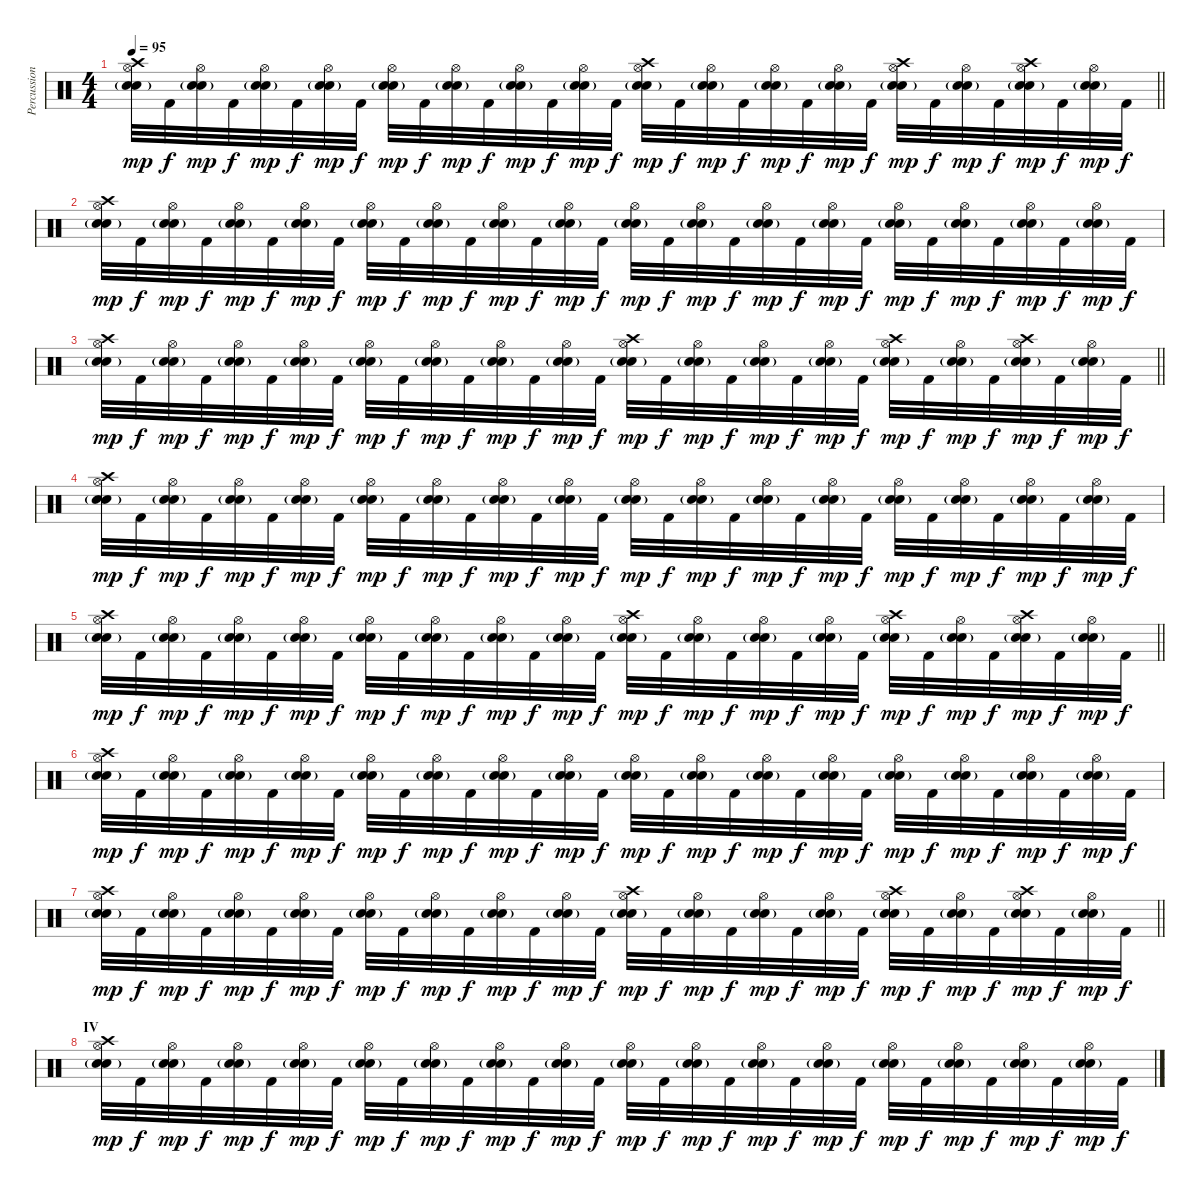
\track ("Percussion" "Percussion") {instrument percussion}
\staff {score}
\articulation defaults
\ts (4 4)
\tempo 95
\clef neutral
\barLineRight lightlight
\ks c
("Crash high (hit)" "Electric Snare (hit)" "Snare (hit) 2"{g} "Hi-Hat (open)").32{dy mp} "Kick (hit) 2".32{dy f} ("Electric Snare (hit)" "Snare (hit) 2"{g} "Hi-Hat (open)").32{dy mp} "Kick (hit) 2".32{dy f} ("Electric Snare (hit)" "Snare (hit) 2"{g} "Hi-Hat (open)").32{dy mp} "Kick (hit) 2".32{dy f} ("Electric Snare (hit)" "Snare (hit) 2"{g} "Hi-Hat (open)").32{dy mp} "Kick (hit) 2".32{dy f} ("Electric Snare (hit)" "Snare (hit) 2"{g} "Hi-Hat (open)").32{dy mp} "Kick (hit) 2".32{dy f} ("Electric Snare (hit)" "Snare (hit) 2"{g} "Hi-Hat (open)").32{dy mp} "Kick (hit) 2".32{dy f} ("Electric Snare (hit)" "Snare (hit) 2"{g} "Hi-Hat (open)").32{dy mp} "Kick (hit) 2".32{dy f} ("Electric Snare (hit)" "Snare (hit) 2"{g} "Hi-Hat (open)").32{dy mp} "Kick (hit) 2".32{dy f} ("Crash high (hit)" "Electric Snare (hit)" "Snare (hit) 2"{g} "Hi-Hat (open)").32{dy mp} "Kick (hit) 2".32{dy f} ("Electric Snare (hit)" "Snare (hit) 2"{g} "Hi-Hat (open)").32{dy mp} "Kick (hit) 2".32{dy f} ("Electric Snare (hit)" "Snare (hit) 2"{g} "Hi-Hat (open)").32{dy mp} "Kick (hit) 2".32{dy f} ("Electric Snare (hit)" "Snare (hit) 2"{g} "Hi-Hat (open)").32{dy mp} "Kick (hit) 2".32{dy f} ("Crash high (hit)" "Electric Snare (hit)" "Snare (hit) 2"{g} "Hi-Hat (open)").32{dy mp} "Kick (hit) 2".32{dy f} ("Electric Snare (hit)" "Snare (hit) 2"{g} "Hi-Hat (open)").32{dy mp} "Kick (hit) 2".32{dy f} ("Crash high (hit)" "Electric Snare (hit)" "Snare (hit) 2"{g} "Hi-Hat (open)").32{dy mp} "Kick (hit) 2".32{dy f} ("Electric Snare (hit)" "Snare (hit) 2"{g} "Hi-Hat (open)").32{dy mp} "Kick (hit) 2".32{dy f} |
("Crash high (hit)" "Electric Snare (hit)" "Snare (hit) 2"{g} "Hi-Hat (open)").32{dy mp} "Kick (hit) 2".32{dy f} ("Electric Snare (hit)" "Snare (hit) 2"{g} "Hi-Hat (open)").32{dy mp} "Kick (hit) 2".32{dy f} ("Electric Snare (hit)" "Snare (hit) 2"{g} "Hi-Hat (open)").32{dy mp} "Kick (hit) 2".32{dy f} ("Electric Snare (hit)" "Snare (hit) 2"{g} "Hi-Hat (open)").32{dy mp} "Kick (hit) 2".32{dy f} ("Electric Snare (hit)" "Snare (hit) 2"{g} "Hi-Hat (open)").32{dy mp} "Kick (hit) 2".32{dy f} ("Electric Snare (hit)" "Snare (hit) 2"{g} "Hi-Hat (open)").32{dy mp} "Kick (hit) 2".32{dy f} ("Electric Snare (hit)" "Snare (hit) 2"{g} "Hi-Hat (open)").32{dy mp} "Kick (hit) 2".32{dy f} ("Electric Snare (hit)" "Snare (hit) 2"{g} "Hi-Hat (open)").32{dy mp} "Kick (hit) 2".32{dy f} ("Electric Snare (hit)" "Snare (hit) 2"{g} "Hi-Hat (open)").32{dy mp} "Kick (hit) 2".32{dy f} ("Electric Snare (hit)" "Snare (hit) 2"{g} "Hi-Hat (open)").32{dy mp} "Kick (hit) 2".32{dy f} ("Electric Snare (hit)" "Snare (hit) 2"{g} "Hi-Hat (open)").32{dy mp} "Kick (hit) 2".32{dy f} ("Electric Snare (hit)" "Snare (hit) 2"{g} "Hi-Hat (open)").32{dy mp} "Kick (hit) 2".32{dy f} ("Electric Snare (hit)" "Snare (hit) 2"{g} "Hi-Hat (open)").32{dy mp} "Kick (hit) 2".32{dy f} ("Electric Snare (hit)" "Snare (hit) 2"{g} "Hi-Hat (open)").32{dy mp} "Kick (hit) 2".32{dy f} ("Electric Snare (hit)" "Snare (hit) 2"{g} "Hi-Hat (open)").32{dy mp} "Kick (hit) 2".32{dy f} ("Electric Snare (hit)" "Snare (hit) 2"{g} "Hi-Hat (open)").32{dy mp} "Kick (hit) 2".32{dy f} |
\barLineRight lightlight
("Crash high (hit)" "Electric Snare (hit)" "Snare (hit) 2"{g} "Hi-Hat (open)").32{dy mp} "Kick (hit) 2".32{dy f} ("Electric Snare (hit)" "Snare (hit) 2"{g} "Hi-Hat (open)").32{dy mp} "Kick (hit) 2".32{dy f} ("Electric Snare (hit)" "Snare (hit) 2"{g} "Hi-Hat (open)").32{dy mp} "Kick (hit) 2".32{dy f} ("Electric Snare (hit)" "Snare (hit) 2"{g} "Hi-Hat (open)").32{dy mp} "Kick (hit) 2".32{dy f} ("Electric Snare (hit)" "Snare (hit) 2"{g} "Hi-Hat (open)").32{dy mp} "Kick (hit) 2".32{dy f} ("Electric Snare (hit)" "Snare (hit) 2"{g} "Hi-Hat (open)").32{dy mp} "Kick (hit) 2".32{dy f} ("Electric Snare (hit)" "Snare (hit) 2"{g} "Hi-Hat (open)").32{dy mp} "Kick (hit) 2".32{dy f} ("Electric Snare (hit)" "Snare (hit) 2"{g} "Hi-Hat (open)").32{dy mp} "Kick (hit) 2".32{dy f} ("Crash high (hit)" "Electric Snare (hit)" "Snare (hit) 2"{g} "Hi-Hat (open)").32{dy mp} "Kick (hit) 2".32{dy f} ("Electric Snare (hit)" "Snare (hit) 2"{g} "Hi-Hat (open)").32{dy mp} "Kick (hit) 2".32{dy f} ("Electric Snare (hit)" "Snare (hit) 2"{g} "Hi-Hat (open)").32{dy mp} "Kick (hit) 2".32{dy f} ("Electric Snare (hit)" "Snare (hit) 2"{g} "Hi-Hat (open)").32{dy mp} "Kick (hit) 2".32{dy f} ("Crash high (hit)" "Electric Snare (hit)" "Snare (hit) 2"{g} "Hi-Hat (open)").32{dy mp} "Kick (hit) 2".32{dy f} ("Electric Snare (hit)" "Snare (hit) 2"{g} "Hi-Hat (open)").32{dy mp} "Kick (hit) 2".32{dy f} ("Crash high (hit)" "Electric Snare (hit)" "Snare (hit) 2"{g} "Hi-Hat (open)").32{dy mp} "Kick (hit) 2".32{dy f} ("Electric Snare (hit)" "Snare (hit) 2"{g} "Hi-Hat (open)").32{dy mp} "Kick (hit) 2".32{dy f} |
("Crash high (hit)" "Electric Snare (hit)" "Snare (hit) 2"{g} "Hi-Hat (open)").32{dy mp} "Kick (hit) 2".32{dy f} ("Electric Snare (hit)" "Snare (hit) 2"{g} "Hi-Hat (open)").32{dy mp} "Kick (hit) 2".32{dy f} ("Electric Snare (hit)" "Snare (hit) 2"{g} "Hi-Hat (open)").32{dy mp} "Kick (hit) 2".32{dy f} ("Electric Snare (hit)" "Snare (hit) 2"{g} "Hi-Hat (open)").32{dy mp} "Kick (hit) 2".32{dy f} ("Electric Snare (hit)" "Snare (hit) 2"{g} "Hi-Hat (open)").32{dy mp} "Kick (hit) 2".32{dy f} ("Electric Snare (hit)" "Snare (hit) 2"{g} "Hi-Hat (open)").32{dy mp} "Kick (hit) 2".32{dy f} ("Electric Snare (hit)" "Snare (hit) 2"{g} "Hi-Hat (open)").32{dy mp} "Kick (hit) 2".32{dy f} ("Electric Snare (hit)" "Snare (hit) 2"{g} "Hi-Hat (open)").32{dy mp} "Kick (hit) 2".32{dy f} ("Electric Snare (hit)" "Snare (hit) 2"{g} "Hi-Hat (open)").32{dy mp} "Kick (hit) 2".32{dy f} ("Electric Snare (hit)" "Snare (hit) 2"{g} "Hi-Hat (open)").32{dy mp} "Kick (hit) 2".32{dy f} ("Electric Snare (hit)" "Snare (hit) 2"{g} "Hi-Hat (open)").32{dy mp} "Kick (hit) 2".32{dy f} ("Electric Snare (hit)" "Snare (hit) 2"{g} "Hi-Hat (open)").32{dy mp} "Kick (hit) 2".32{dy f} ("Electric Snare (hit)" "Snare (hit) 2"{g} "Hi-Hat (open)").32{dy mp} "Kick (hit) 2".32{dy f} ("Electric Snare (hit)" "Snare (hit) 2"{g} "Hi-Hat (open)").32{dy mp} "Kick (hit) 2".32{dy f} ("Electric Snare (hit)" "Snare (hit) 2"{g} "Hi-Hat (open)").32{dy mp} "Kick (hit) 2".32{dy f} ("Electric Snare (hit)" "Snare (hit) 2"{g} "Hi-Hat (open)").32{dy mp} "Kick (hit) 2".32{dy f} |
\barLineRight lightlight
("Crash high (hit)" "Electric Snare (hit)" "Snare (hit) 2"{g} "Hi-Hat (open)").32{dy mp} "Kick (hit) 2".32{dy f} ("Electric Snare (hit)" "Snare (hit) 2"{g} "Hi-Hat (open)").32{dy mp} "Kick (hit) 2".32{dy f} ("Electric Snare (hit)" "Snare (hit) 2"{g} "Hi-Hat (open)").32{dy mp} "Kick (hit) 2".32{dy f} ("Electric Snare (hit)" "Snare (hit) 2"{g} "Hi-Hat (open)").32{dy mp} "Kick (hit) 2".32{dy f} ("Electric Snare (hit)" "Snare (hit) 2"{g} "Hi-Hat (open)").32{dy mp} "Kick (hit) 2".32{dy f} ("Electric Snare (hit)" "Snare (hit) 2"{g} "Hi-Hat (open)").32{dy mp} "Kick (hit) 2".32{dy f} ("Electric Snare (hit)" "Snare (hit) 2"{g} "Hi-Hat (open)").32{dy mp} "Kick (hit) 2".32{dy f} ("Electric Snare (hit)" "Snare (hit) 2"{g} "Hi-Hat (open)").32{dy mp} "Kick (hit) 2".32{dy f} ("Crash high (hit)" "Electric Snare (hit)" "Snare (hit) 2"{g} "Hi-Hat (open)").32{dy mp} "Kick (hit) 2".32{dy f} ("Electric Snare (hit)" "Snare (hit) 2"{g} "Hi-Hat (open)").32{dy mp} "Kick (hit) 2".32{dy f} ("Electric Snare (hit)" "Snare (hit) 2"{g} "Hi-Hat (open)").32{dy mp} "Kick (hit) 2".32{dy f} ("Electric Snare (hit)" "Snare (hit) 2"{g} "Hi-Hat (open)").32{dy mp} "Kick (hit) 2".32{dy f} ("Crash high (hit)" "Electric Snare (hit)" "Snare (hit) 2"{g} "Hi-Hat (open)").32{dy mp} "Kick (hit) 2".32{dy f} ("Electric Snare (hit)" "Snare (hit) 2"{g} "Hi-Hat (open)").32{dy mp} "Kick (hit) 2".32{dy f} ("Crash high (hit)" "Electric Snare (hit)" "Snare (hit) 2"{g} "Hi-Hat (open)").32{dy mp} "Kick (hit) 2".32{dy f} ("Electric Snare (hit)" "Snare (hit) 2"{g} "Hi-Hat (open)").32{dy mp} "Kick (hit) 2".32{dy f} |
("Crash high (hit)" "Electric Snare (hit)" "Snare (hit) 2"{g} "Hi-Hat (open)").32{dy mp} "Kick (hit) 2".32{dy f} ("Electric Snare (hit)" "Snare (hit) 2"{g} "Hi-Hat (open)").32{dy mp} "Kick (hit) 2".32{dy f} ("Electric Snare (hit)" "Snare (hit) 2"{g} "Hi-Hat (open)").32{dy mp} "Kick (hit) 2".32{dy f} ("Electric Snare (hit)" "Snare (hit) 2"{g} "Hi-Hat (open)").32{dy mp} "Kick (hit) 2".32{dy f} ("Electric Snare (hit)" "Snare (hit) 2"{g} "Hi-Hat (open)").32{dy mp} "Kick (hit) 2".32{dy f} ("Electric Snare (hit)" "Snare (hit) 2"{g} "Hi-Hat (open)").32{dy mp} "Kick (hit) 2".32{dy f} ("Electric Snare (hit)" "Snare (hit) 2"{g} "Hi-Hat (open)").32{dy mp} "Kick (hit) 2".32{dy f} ("Electric Snare (hit)" "Snare (hit) 2"{g} "Hi-Hat (open)").32{dy mp} "Kick (hit) 2".32{dy f} ("Electric Snare (hit)" "Snare (hit) 2"{g} "Hi-Hat (open)").32{dy mp} "Kick (hit) 2".32{dy f} ("Electric Snare (hit)" "Snare (hit) 2"{g} "Hi-Hat (open)").32{dy mp} "Kick (hit) 2".32{dy f} ("Electric Snare (hit)" "Snare (hit) 2"{g} "Hi-Hat (open)").32{dy mp} "Kick (hit) 2".32{dy f} ("Electric Snare (hit)" "Snare (hit) 2"{g} "Hi-Hat (open)").32{dy mp} "Kick (hit) 2".32{dy f} ("Electric Snare (hit)" "Snare (hit) 2"{g} "Hi-Hat (open)").32{dy mp} "Kick (hit) 2".32{dy f} ("Electric Snare (hit)" "Snare (hit) 2"{g} "Hi-Hat (open)").32{dy mp} "Kick (hit) 2".32{dy f} ("Electric Snare (hit)" "Snare (hit) 2"{g} "Hi-Hat (open)").32{dy mp} "Kick (hit) 2".32{dy f} ("Electric Snare (hit)" "Snare (hit) 2"{g} "Hi-Hat (open)").32{dy mp} "Kick (hit) 2".32{dy f} |
\barLineRight lightlight
("Crash high (hit)" "Electric Snare (hit)" "Snare (hit) 2"{g} "Hi-Hat (open)").32{dy mp} "Kick (hit) 2".32{dy f} ("Electric Snare (hit)" "Snare (hit) 2"{g} "Hi-Hat (open)").32{dy mp} "Kick (hit) 2".32{dy f} ("Electric Snare (hit)" "Snare (hit) 2"{g} "Hi-Hat (open)").32{dy mp} "Kick (hit) 2".32{dy f} ("Electric Snare (hit)" "Snare (hit) 2"{g} "Hi-Hat (open)").32{dy mp} "Kick (hit) 2".32{dy f} ("Electric Snare (hit)" "Snare (hit) 2"{g} "Hi-Hat (open)").32{dy mp} "Kick (hit) 2".32{dy f} ("Electric Snare (hit)" "Snare (hit) 2"{g} "Hi-Hat (open)").32{dy mp} "Kick (hit) 2".32{dy f} ("Electric Snare (hit)" "Snare (hit) 2"{g} "Hi-Hat (open)").32{dy mp} "Kick (hit) 2".32{dy f} ("Electric Snare (hit)" "Snare (hit) 2"{g} "Hi-Hat (open)").32{dy mp} "Kick (hit) 2".32{dy f} ("Crash high (hit)" "Electric Snare (hit)" "Snare (hit) 2"{g} "Hi-Hat (open)").32{dy mp} "Kick (hit) 2".32{dy f} ("Electric Snare (hit)" "Snare (hit) 2"{g} "Hi-Hat (open)").32{dy mp} "Kick (hit) 2".32{dy f} ("Electric Snare (hit)" "Snare (hit) 2"{g} "Hi-Hat (open)").32{dy mp} "Kick (hit) 2".32{dy f} ("Electric Snare (hit)" "Snare (hit) 2"{g} "Hi-Hat (open)").32{dy mp} "Kick (hit) 2".32{dy f} ("Crash high (hit)" "Electric Snare (hit)" "Snare (hit) 2"{g} "Hi-Hat (open)").32{dy mp} "Kick (hit) 2".32{dy f} ("Electric Snare (hit)" "Snare (hit) 2"{g} "Hi-Hat (open)").32{dy mp} "Kick (hit) 2".32{dy f} ("Crash high (hit)" "Electric Snare (hit)" "Snare (hit) 2"{g} "Hi-Hat (open)").32{dy mp} "Kick (hit) 2".32{dy f} ("Electric Snare (hit)" "Snare (hit) 2"{g} "Hi-Hat (open)").32{dy mp} "Kick (hit) 2".32{dy f} |
\section ("" "IV")
("Crash high (hit)" "Electric Snare (hit)" "Snare (hit) 2"{g} "Hi-Hat (open)").32{dy mp} "Kick (hit) 2".32{dy f} ("Electric Snare (hit)" "Snare (hit) 2"{g} "Hi-Hat (open)").32{dy mp} "Kick (hit) 2".32{dy f} ("Electric Snare (hit)" "Snare (hit) 2"{g} "Hi-Hat (open)").32{dy mp} "Kick (hit) 2".32{dy f} ("Electric Snare (hit)" "Snare (hit) 2"{g} "Hi-Hat (open)").32{dy mp} "Kick (hit) 2".32{dy f} ("Electric Snare (hit)" "Snare (hit) 2"{g} "Hi-Hat (open)").32{dy mp} "Kick (hit) 2".32{dy f} ("Electric Snare (hit)" "Snare (hit) 2"{g} "Hi-Hat (open)").32{dy mp} "Kick (hit) 2".32{dy f} ("Electric Snare (hit)" "Snare (hit) 2"{g} "Hi-Hat (open)").32{dy mp} "Kick (hit) 2".32{dy f} ("Electric Snare (hit)" "Snare (hit) 2"{g} "Hi-Hat (open)").32{dy mp} "Kick (hit) 2".32{dy f} ("Electric Snare (hit)" "Snare (hit) 2"{g} "Hi-Hat (open)").32{dy mp} "Kick (hit) 2".32{dy f} ("Electric Snare (hit)" "Snare (hit) 2"{g} "Hi-Hat (open)").32{dy mp} "Kick (hit) 2".32{dy f} ("Electric Snare (hit)" "Snare (hit) 2"{g} "Hi-Hat (open)").32{dy mp} "Kick (hit) 2".32{dy f} ("Electric Snare (hit)" "Snare (hit) 2"{g} "Hi-Hat (open)").32{dy mp} "Kick (hit) 2".32{dy f} ("Electric Snare (hit)" "Snare (hit) 2"{g} "Hi-Hat (open)").32{dy mp} "Kick (hit) 2".32{dy f} ("Electric Snare (hit)" "Snare (hit) 2"{g} "Hi-Hat (open)").32{dy mp} "Kick (hit) 2".32{dy f} ("Electric Snare (hit)" "Snare (hit) 2"{g} "Hi-Hat (open)").32{dy mp} "Kick (hit) 2".32{dy f} ("Electric Snare (hit)" "Snare (hit) 2"{g} "Hi-Hat (open)").32{dy mp} "Kick (hit) 2".32{dy f}
